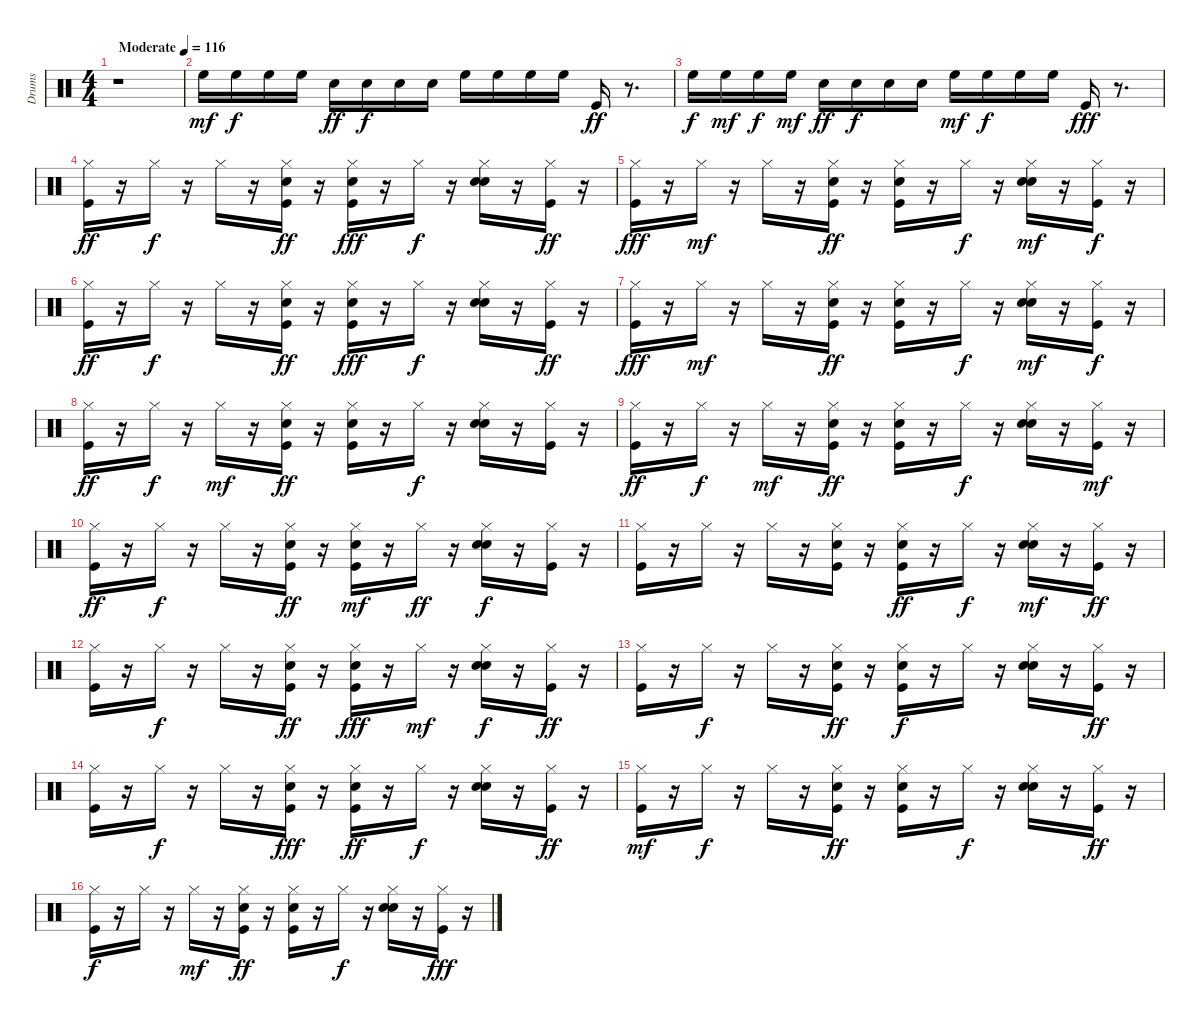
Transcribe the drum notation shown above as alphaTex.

\track ("Drums   " "Drums   ") {instrument percussion}
\staff {score}
\articulation defaults
\ts (4 4)
\tempo (116 "Moderate")
\clef neutral
\ks c
r.1{dy mf} |
"High Floor Tom (hit)".16 "High Floor Tom (hit)".16{dy f} "High Floor Tom (hit)".16 "High Floor Tom (hit)".16 "Snare (hit) 2".16{dy ff} "Snare (hit) 2".16{dy f} "Snare (hit) 2".16 "Snare (hit) 2".16 "High Floor Tom (hit)".16 "High Floor Tom (hit)".16 "High Floor Tom (hit)".16 "High Floor Tom (hit)".16 "Kick (hit)".16{dy ff} r.8{d} |
"High Floor Tom (hit)".16{dy f} "High Floor Tom (hit)".16{dy mf} "High Floor Tom (hit)".16{dy f} "High Floor Tom (hit)".16{dy mf} "Snare (hit) 2".16{dy ff} "Snare (hit) 2".16{dy f} "Snare (hit) 2".16 "Snare (hit) 2".16 "High Floor Tom (hit)".16{dy mf} "High Floor Tom (hit)".16{dy f} "High Floor Tom (hit)".16 "High Floor Tom (hit)".16 "Kick (hit)".16{dy fff} r.8{d} |
("Hi-Hat (closed)" "Kick (hit)").16{dy ff} r.16 "Hi-Hat (closed)".16{dy f} r.16 "Hi-Hat (closed)".16 r.16 ("Hi-Hat (closed)" "Hand Clap (hit)" "Kick (hit)").16{dy ff} r.16 ("Hi-Hat (closed)" "Hand Clap (hit)" "Kick (hit)").16{dy fff} r.16 "Hi-Hat (closed)".16{dy f} r.16 ("Hi-Hat (closed)" "Hand Clap (hit)" "Snare (hit) 2").16 r.16 ("Hi-Hat (closed)" "Kick (hit)").16{dy ff} r.16 |
("Hi-Hat (closed)" "Kick (hit)").16{dy fff} r.16 "Hi-Hat (closed)".16{dy mf} r.16 "Hi-Hat (closed)".16 r.16 ("Hi-Hat (closed)" "Hand Clap (hit)" "Kick (hit)").16{dy ff} r.16 ("Hi-Hat (closed)" "Hand Clap (hit)" "Kick (hit)").16 r.16 "Hi-Hat (closed)".16{dy f} r.16 ("Hi-Hat (closed)" "Hand Clap (hit)" "Snare (hit) 2").16{dy mf} r.16 ("Hi-Hat (closed)" "Kick (hit)").16{dy f} r.16 |
("Hi-Hat (closed)" "Kick (hit)").16{dy ff} r.16 "Hi-Hat (closed)".16{dy f} r.16 "Hi-Hat (closed)".16 r.16 ("Hi-Hat (closed)" "Hand Clap (hit)" "Kick (hit)").16{dy ff} r.16 ("Hi-Hat (closed)" "Hand Clap (hit)" "Kick (hit)").16{dy fff} r.16 "Hi-Hat (closed)".16{dy f} r.16 ("Hi-Hat (closed)" "Hand Clap (hit)" "Snare (hit) 2").16 r.16 ("Hi-Hat (closed)" "Kick (hit)").16{dy ff} r.16 |
("Hi-Hat (closed)" "Kick (hit)").16{dy fff} r.16 "Hi-Hat (closed)".16{dy mf} r.16 "Hi-Hat (closed)".16 r.16 ("Hi-Hat (closed)" "Hand Clap (hit)" "Kick (hit)").16{dy ff} r.16 ("Hi-Hat (closed)" "Hand Clap (hit)" "Kick (hit)").16 r.16 "Hi-Hat (closed)".16{dy f} r.16 ("Hi-Hat (closed)" "Hand Clap (hit)" "Snare (hit) 2").16{dy mf} r.16 ("Hi-Hat (closed)" "Kick (hit)").16{dy f} r.16 |
("Hi-Hat (closed)" "Kick (hit)").16{dy ff} r.16 "Hi-Hat (closed)".16{dy f} r.16 "Hi-Hat (closed)".16{dy mf} r.16 ("Hi-Hat (closed)" "Hand Clap (hit)" "Kick (hit)").16{dy ff} r.16 ("Hi-Hat (closed)" "Hand Clap (hit)" "Kick (hit)").16 r.16 "Hi-Hat (closed)".16{dy f} r.16 ("Hi-Hat (closed)" "Hand Clap (hit)" "Snare (hit) 2").16 r.16 ("Hi-Hat (closed)" "Kick (hit)").16 r.16 |
("Hi-Hat (closed)" "Kick (hit)").16{dy ff} r.16 "Hi-Hat (closed)".16{dy f} r.16 "Hi-Hat (closed)".16{dy mf} r.16 ("Hi-Hat (closed)" "Hand Clap (hit)" "Kick (hit)").16{dy ff} r.16 ("Hi-Hat (closed)" "Hand Clap (hit)" "Kick (hit)").16 r.16 "Hi-Hat (closed)".16{dy f} r.16 ("Hi-Hat (closed)" "Hand Clap (hit)" "Snare (hit) 2").16 r.16 ("Hi-Hat (closed)" "Kick (hit)").16{dy mf} r.16 |
("Hi-Hat (closed)" "Kick (hit)").16{dy ff} r.16 "Hi-Hat (closed)".16{dy f} r.16 "Hi-Hat (closed)".16 r.16 ("Hi-Hat (closed)" "Hand Clap (hit)" "Kick (hit)").16{dy ff} r.16 ("Hi-Hat (closed)" "Hand Clap (hit)" "Kick (hit)").16{dy mf} r.16 "Hi-Hat (closed)".16{dy ff} r.16 ("Hi-Hat (closed)" "Hand Clap (hit)" "Snare (hit) 2").16{dy f} r.16 ("Hi-Hat (closed)" "Kick (hit)").16 r.16 |
("Hi-Hat (closed)" "Kick (hit)").16 r.16 "Hi-Hat (closed)".16 r.16 "Hi-Hat (closed)".16 r.16 ("Hi-Hat (closed)" "Hand Clap (hit)" "Kick (hit)").16 r.16 ("Hi-Hat (closed)" "Hand Clap (hit)" "Kick (hit)").16{dy ff} r.16 "Hi-Hat (closed)".16{dy f} r.16 ("Hi-Hat (closed)" "Hand Clap (hit)" "Snare (hit) 2").16{dy mf} r.16 ("Hi-Hat (closed)" "Kick (hit)").16{dy ff} r.16 |
("Hi-Hat (closed)" "Kick (hit)").16 r.16 "Hi-Hat (closed)".16{dy f} r.16 "Hi-Hat (closed)".16 r.16 ("Hi-Hat (closed)" "Hand Clap (hit)" "Kick (hit)").16{dy ff} r.16 ("Hi-Hat (closed)" "Hand Clap (hit)" "Kick (hit)").16{dy fff} r.16 "Hi-Hat (closed)".16{dy mf} r.16 ("Hi-Hat (closed)" "Hand Clap (hit)" "Snare (hit) 2").16{dy f} r.16 ("Hi-Hat (closed)" "Kick (hit)").16{dy ff} r.16 |
("Hi-Hat (closed)" "Kick (hit)").16 r.16 "Hi-Hat (closed)".16{dy f} r.16 "Hi-Hat (closed)".16 r.16 ("Hi-Hat (closed)" "Hand Clap (hit)" "Kick (hit)").16{dy ff} r.16 ("Hi-Hat (closed)" "Hand Clap (hit)" "Kick (hit)").16{dy f} r.16 "Hi-Hat (closed)".16 r.16 ("Hi-Hat (closed)" "Hand Clap (hit)" "Snare (hit) 2").16 r.16 ("Hi-Hat (closed)" "Kick (hit)").16{dy ff} r.16 |
("Hi-Hat (closed)" "Kick (hit)").16 r.16 "Hi-Hat (closed)".16{dy f} r.16 "Hi-Hat (closed)".16 r.16 ("Hi-Hat (closed)" "Hand Clap (hit)" "Kick (hit)").16{dy fff} r.16 ("Hi-Hat (closed)" "Hand Clap (hit)" "Kick (hit)").16{dy ff} r.16 "Hi-Hat (closed)".16{dy f} r.16 ("Hi-Hat (closed)" "Hand Clap (hit)" "Snare (hit) 2").16 r.16 ("Hi-Hat (closed)" "Kick (hit)").16{dy ff} r.16 |
("Hi-Hat (closed)" "Kick (hit)").16{dy mf} r.16 "Hi-Hat (closed)".16{dy f} r.16 "Hi-Hat (closed)".16 r.16 ("Hi-Hat (closed)" "Hand Clap (hit)" "Kick (hit)").16{dy ff} r.16 ("Hi-Hat (closed)" "Hand Clap (hit)" "Kick (hit)").16 r.16 "Hi-Hat (closed)".16{dy f} r.16 ("Hi-Hat (closed)" "Hand Clap (hit)" "Snare (hit) 2").16 r.16 ("Hi-Hat (closed)" "Kick (hit)").16{dy ff} r.16 |
("Hi-Hat (closed)" "Kick (hit)").16{dy f} r.16 "Hi-Hat (closed)".16 r.16 "Hi-Hat (closed)".16{dy mf} r.16 ("Hi-Hat (closed)" "Hand Clap (hit)" "Kick (hit)").16{dy ff} r.16 ("Hi-Hat (closed)" "Hand Clap (hit)" "Kick (hit)").16 r.16 "Hi-Hat (closed)".16{dy f} r.16 ("Hi-Hat (closed)" "Hand Clap (hit)" "Snare (hit) 2").16 r.16 ("Hi-Hat (closed)" "Kick (hit)").16{dy fff} r.16
